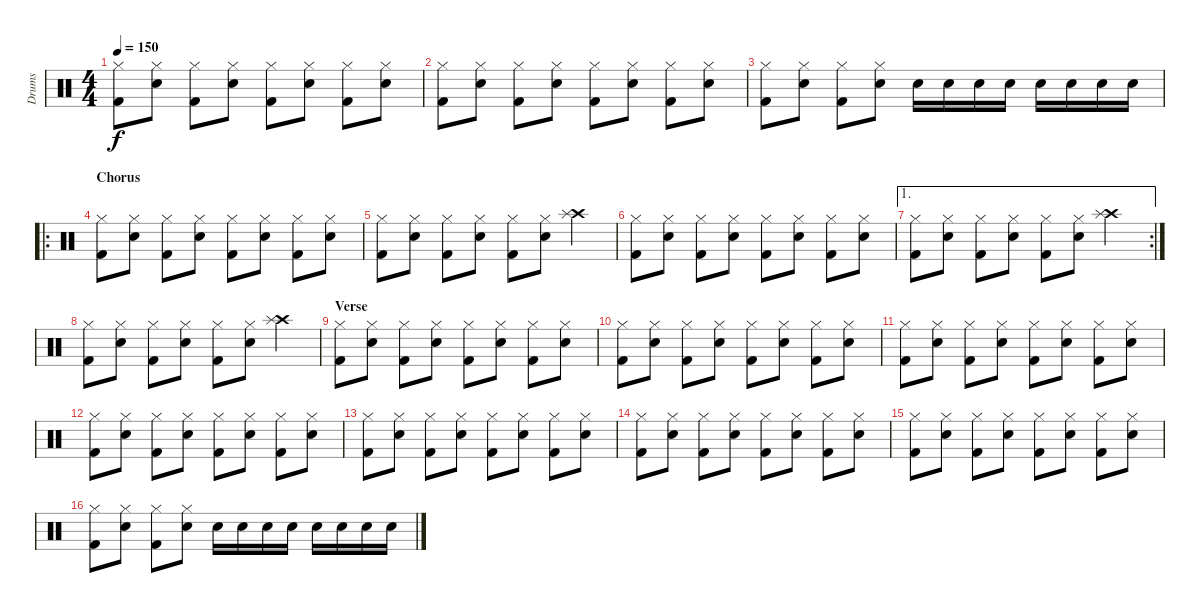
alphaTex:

\track ("Drums" "Drums") {instrument percussion}
\staff {score}
\articulation defaults
\ts (4 4)
\tempo 150
\clef neutral
\ks c
("Hi-Hat (closed)" "Kick (hit) 2").8{dy f} ("Hi-Hat (closed)" "Snare (hit) 2").8 ("Hi-Hat (closed)" "Kick (hit) 2").8 ("Hi-Hat (closed)" "Snare (hit) 2").8 ("Hi-Hat (closed)" "Kick (hit) 2").8 ("Hi-Hat (closed)" "Snare (hit) 2").8 ("Hi-Hat (closed)" "Kick (hit) 2").8 ("Hi-Hat (closed)" "Snare (hit) 2").8 |
("Hi-Hat (closed)" "Kick (hit) 2").8 ("Hi-Hat (closed)" "Snare (hit) 2").8 ("Hi-Hat (closed)" "Kick (hit) 2").8 ("Hi-Hat (closed)" "Snare (hit) 2").8 ("Hi-Hat (closed)" "Kick (hit) 2").8 ("Hi-Hat (closed)" "Snare (hit) 2").8 ("Hi-Hat (closed)" "Kick (hit) 2").8 ("Hi-Hat (closed)" "Snare (hit) 2").8 |
("Hi-Hat (closed)" "Kick (hit) 2").8 ("Hi-Hat (closed)" "Snare (hit) 2").8 ("Hi-Hat (closed)" "Kick (hit) 2").8 ("Hi-Hat (closed)" "Snare (hit) 2").8 "Snare (hit) 2".16 "Snare (hit) 2".16 "Snare (hit) 2".16 "Snare (hit) 2".16 "Snare (hit) 2".16 "Snare (hit) 2".16 "Snare (hit) 2".16 "Snare (hit) 2".16 |
\ro
\section ("" "Chorus")
("Hi-Hat (closed)" "Kick (hit) 2").8 ("Hi-Hat (closed)" "Snare (hit) 2").8 ("Hi-Hat (closed)" "Kick (hit) 2").8 ("Hi-Hat (closed)" "Snare (hit) 2").8 ("Hi-Hat (closed)" "Kick (hit) 2").8 ("Hi-Hat (closed)" "Snare (hit) 2").8 ("Hi-Hat (closed)" "Kick (hit) 2").8 ("Hi-Hat (closed)" "Snare (hit) 2").8 |
("Hi-Hat (closed)" "Kick (hit) 2").8 ("Hi-Hat (closed)" "Snare (hit) 2").8 ("Hi-Hat (closed)" "Kick (hit) 2").8 ("Hi-Hat (closed)" "Snare (hit) 2").8 ("Hi-Hat (closed)" "Kick (hit) 2").8 ("Hi-Hat (closed)" "Snare (hit) 2").8 ("Crash high (hit)" "Splash (hit)").4 |
("Hi-Hat (closed)" "Kick (hit) 2").8 ("Hi-Hat (closed)" "Snare (hit) 2").8 ("Hi-Hat (closed)" "Kick (hit) 2").8 ("Hi-Hat (closed)" "Snare (hit) 2").8 ("Hi-Hat (closed)" "Kick (hit) 2").8 ("Hi-Hat (closed)" "Snare (hit) 2").8 ("Hi-Hat (closed)" "Kick (hit) 2").8 ("Hi-Hat (closed)" "Snare (hit) 2").8 |
\ae 1
\rc 2
("Hi-Hat (closed)" "Kick (hit) 2").8 ("Hi-Hat (closed)" "Snare (hit) 2").8 ("Hi-Hat (closed)" "Kick (hit) 2").8 ("Hi-Hat (closed)" "Snare (hit) 2").8 ("Hi-Hat (closed)" "Kick (hit) 2").8 ("Hi-Hat (closed)" "Snare (hit) 2").8 ("Crash high (hit)" "Splash (hit)").4 |
("Hi-Hat (closed)" "Kick (hit) 2").8 ("Hi-Hat (closed)" "Snare (hit) 2").8 ("Hi-Hat (closed)" "Kick (hit) 2").8 ("Hi-Hat (closed)" "Snare (hit) 2").8 ("Hi-Hat (closed)" "Kick (hit) 2").8 ("Hi-Hat (closed)" "Snare (hit) 2").8 ("Crash high (hit)" "Splash (hit)").4 |
\section ("" "Verse")
("Hi-Hat (closed)" "Kick (hit) 2").8 ("Hi-Hat (closed)" "Snare (hit) 2").8 ("Hi-Hat (closed)" "Kick (hit) 2").8 ("Hi-Hat (closed)" "Snare (hit) 2").8 ("Hi-Hat (closed)" "Kick (hit) 2").8 ("Hi-Hat (closed)" "Snare (hit) 2").8 ("Hi-Hat (closed)" "Kick (hit) 2").8 ("Hi-Hat (closed)" "Snare (hit) 2").8 |
("Hi-Hat (closed)" "Kick (hit) 2").8 ("Hi-Hat (closed)" "Snare (hit) 2").8 ("Hi-Hat (closed)" "Kick (hit) 2").8 ("Hi-Hat (closed)" "Snare (hit) 2").8 ("Hi-Hat (closed)" "Kick (hit) 2").8 ("Hi-Hat (closed)" "Snare (hit) 2").8 ("Hi-Hat (closed)" "Kick (hit) 2").8 ("Hi-Hat (closed)" "Snare (hit) 2").8 |
("Hi-Hat (closed)" "Kick (hit) 2").8 ("Hi-Hat (closed)" "Snare (hit) 2").8 ("Hi-Hat (closed)" "Kick (hit) 2").8 ("Hi-Hat (closed)" "Snare (hit) 2").8 ("Hi-Hat (closed)" "Kick (hit) 2").8 ("Hi-Hat (closed)" "Snare (hit) 2").8 ("Hi-Hat (closed)" "Kick (hit) 2").8 ("Hi-Hat (closed)" "Snare (hit) 2").8 |
("Hi-Hat (closed)" "Kick (hit) 2").8 ("Hi-Hat (closed)" "Snare (hit) 2").8 ("Hi-Hat (closed)" "Kick (hit) 2").8 ("Hi-Hat (closed)" "Snare (hit) 2").8 ("Hi-Hat (closed)" "Kick (hit) 2").8 ("Hi-Hat (closed)" "Snare (hit) 2").8 ("Hi-Hat (closed)" "Kick (hit) 2").8 ("Hi-Hat (closed)" "Snare (hit) 2").8 |
("Hi-Hat (closed)" "Kick (hit) 2").8 ("Hi-Hat (closed)" "Snare (hit) 2").8 ("Hi-Hat (closed)" "Kick (hit) 2").8 ("Hi-Hat (closed)" "Snare (hit) 2").8 ("Hi-Hat (closed)" "Kick (hit) 2").8 ("Hi-Hat (closed)" "Snare (hit) 2").8 ("Hi-Hat (closed)" "Kick (hit) 2").8 ("Hi-Hat (closed)" "Snare (hit) 2").8 |
("Hi-Hat (closed)" "Kick (hit) 2").8 ("Hi-Hat (closed)" "Snare (hit) 2").8 ("Hi-Hat (closed)" "Kick (hit) 2").8 ("Hi-Hat (closed)" "Snare (hit) 2").8 ("Hi-Hat (closed)" "Kick (hit) 2").8 ("Hi-Hat (closed)" "Snare (hit) 2").8 ("Hi-Hat (closed)" "Kick (hit) 2").8 ("Hi-Hat (closed)" "Snare (hit) 2").8 |
("Hi-Hat (closed)" "Kick (hit) 2").8 ("Hi-Hat (closed)" "Snare (hit) 2").8 ("Hi-Hat (closed)" "Kick (hit) 2").8 ("Hi-Hat (closed)" "Snare (hit) 2").8 ("Hi-Hat (closed)" "Kick (hit) 2").8 ("Hi-Hat (closed)" "Snare (hit) 2").8 ("Hi-Hat (closed)" "Kick (hit) 2").8 ("Hi-Hat (closed)" "Snare (hit) 2").8 |
("Hi-Hat (closed)" "Kick (hit) 2").8 ("Hi-Hat (closed)" "Snare (hit) 2").8 ("Hi-Hat (closed)" "Kick (hit) 2").8 ("Hi-Hat (closed)" "Snare (hit) 2").8 "Snare (hit) 2".16 "Snare (hit) 2".16 "Snare (hit) 2".16 "Snare (hit) 2".16 "Snare (hit) 2".16 "Snare (hit) 2".16 "Snare (hit) 2".16 "Snare (hit) 2".16
